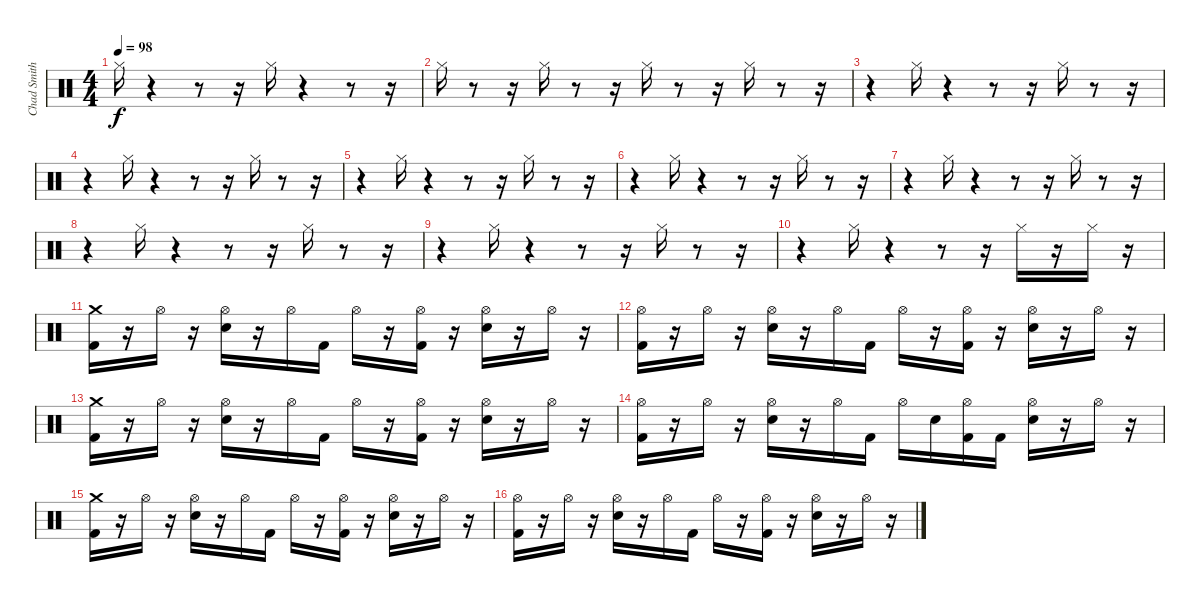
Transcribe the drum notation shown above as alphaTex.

\track ("Chad Smith" "Chad Smith") {instrument percussion}
\staff {score}
\articulation defaults
\ts (4 4)
\tempo 98
\clef neutral
\ks c "Hi-Hat (closed)".16{dy f}
r.4 r.8 r.16 "Hi-Hat (closed)".16 r.4 r.8 r.16 |
"Hi-Hat (closed)".16 r.8 r.16 "Hi-Hat (closed)".16 r.8 r.16 "Hi-Hat (closed)".16 r.8 r.16 "Hi-Hat (closed)".16 r.8 r.16 |
r.4 "Hi-Hat (closed)".16 r.4 r.8 r.16 "Hi-Hat (closed)".16 r.8 r.16 |
r.4 "Hi-Hat (closed)".16 r.4 r.8 r.16 "Hi-Hat (closed)".16 r.8 r.16 |
r.4 "Hi-Hat (closed)".16 r.4 r.8 r.16 "Hi-Hat (closed)".16 r.8 r.16 |
r.4 "Hi-Hat (closed)".16 r.4 r.8 r.16 "Hi-Hat (closed)".16 r.8 r.16 |
r.4 "Hi-Hat (closed)".16 r.4 r.8 r.16 "Hi-Hat (closed)".16 r.8 r.16 |
r.4 "Hi-Hat (closed)".16 r.4 r.8 r.16 "Hi-Hat (closed)".16 r.8 r.16 |
r.4 "Hi-Hat (closed)".16 r.4 r.8 r.16 "Hi-Hat (closed)".16 r.8 r.16 |
r.4 "Hi-Hat (closed)".16 r.4 r.8 r.16 "Hi-Hat (closed)".16 r.16 "Hi-Hat (closed)".16 r.16 |
("Kick (hit) 2" "Crash medium (hit)").16 r.16 "Hi-Hat (open)".16 r.16 ("Electric Snare (hit)" "Hi-Hat (open)").16 r.16 "Hi-Hat (open)".16 "Kick (hit) 2".16 "Hi-Hat (open)".16 r.16 ("Hi-Hat (open)" "Kick (hit) 2").16 r.16 ("Hi-Hat (open)" "Electric Snare (hit)").16 r.16 "Hi-Hat (open)".16 r.16 |
("Hi-Hat (open)" "Kick (hit) 2").16 r.16 "Hi-Hat (open)".16 r.16 ("Hi-Hat (open)" "Electric Snare (hit)").16 r.16 "Hi-Hat (open)".16 "Kick (hit) 2".16 "Hi-Hat (open)".16 r.16 ("Hi-Hat (open)" "Kick (hit) 2").16 r.16 ("Hi-Hat (open)" "Electric Snare (hit)").16 r.16 "Hi-Hat (open)".16 r.16 |
("Kick (hit) 2" "Crash medium (hit)").16 r.16 "Hi-Hat (open)".16 r.16 ("Electric Snare (hit)" "Hi-Hat (open)").16 r.16 "Hi-Hat (open)".16 "Kick (hit) 2".16 "Hi-Hat (open)".16 r.16 ("Hi-Hat (open)" "Kick (hit) 2").16 r.16 ("Hi-Hat (open)" "Electric Snare (hit)").16 r.16 "Hi-Hat (open)".16 r.16 |
("Hi-Hat (open)" "Kick (hit) 2").16 r.16 "Hi-Hat (open)".16 r.16 ("Hi-Hat (open)" "Electric Snare (hit)").16 r.16 "Hi-Hat (open)".16 "Kick (hit) 2".16 "Hi-Hat (open)".16 "Electric Snare (hit)".16 ("Hi-Hat (open)" "Kick (hit) 2").16 "Kick (hit) 2".16 ("Hi-Hat (open)" "Electric Snare (hit)").16 r.16 "Hi-Hat (open)".16 r.16 |
("Kick (hit) 2" "Crash medium (hit)").16 r.16 "Hi-Hat (open)".16 r.16 ("Electric Snare (hit)" "Hi-Hat (open)").16 r.16 "Hi-Hat (open)".16 "Kick (hit) 2".16 "Hi-Hat (open)".16 r.16 ("Hi-Hat (open)" "Kick (hit) 2").16 r.16 ("Hi-Hat (open)" "Electric Snare (hit)").16 r.16 "Hi-Hat (open)".16 r.16 |
("Hi-Hat (open)" "Kick (hit) 2").16 r.16 "Hi-Hat (open)".16 r.16 ("Hi-Hat (open)" "Electric Snare (hit)").16 r.16 "Hi-Hat (open)".16 "Kick (hit) 2".16 "Hi-Hat (open)".16 r.16 ("Hi-Hat (open)" "Kick (hit) 2").16 r.16 ("Hi-Hat (open)" "Electric Snare (hit)").16 r.16 "Hi-Hat (open)".16 r.16
